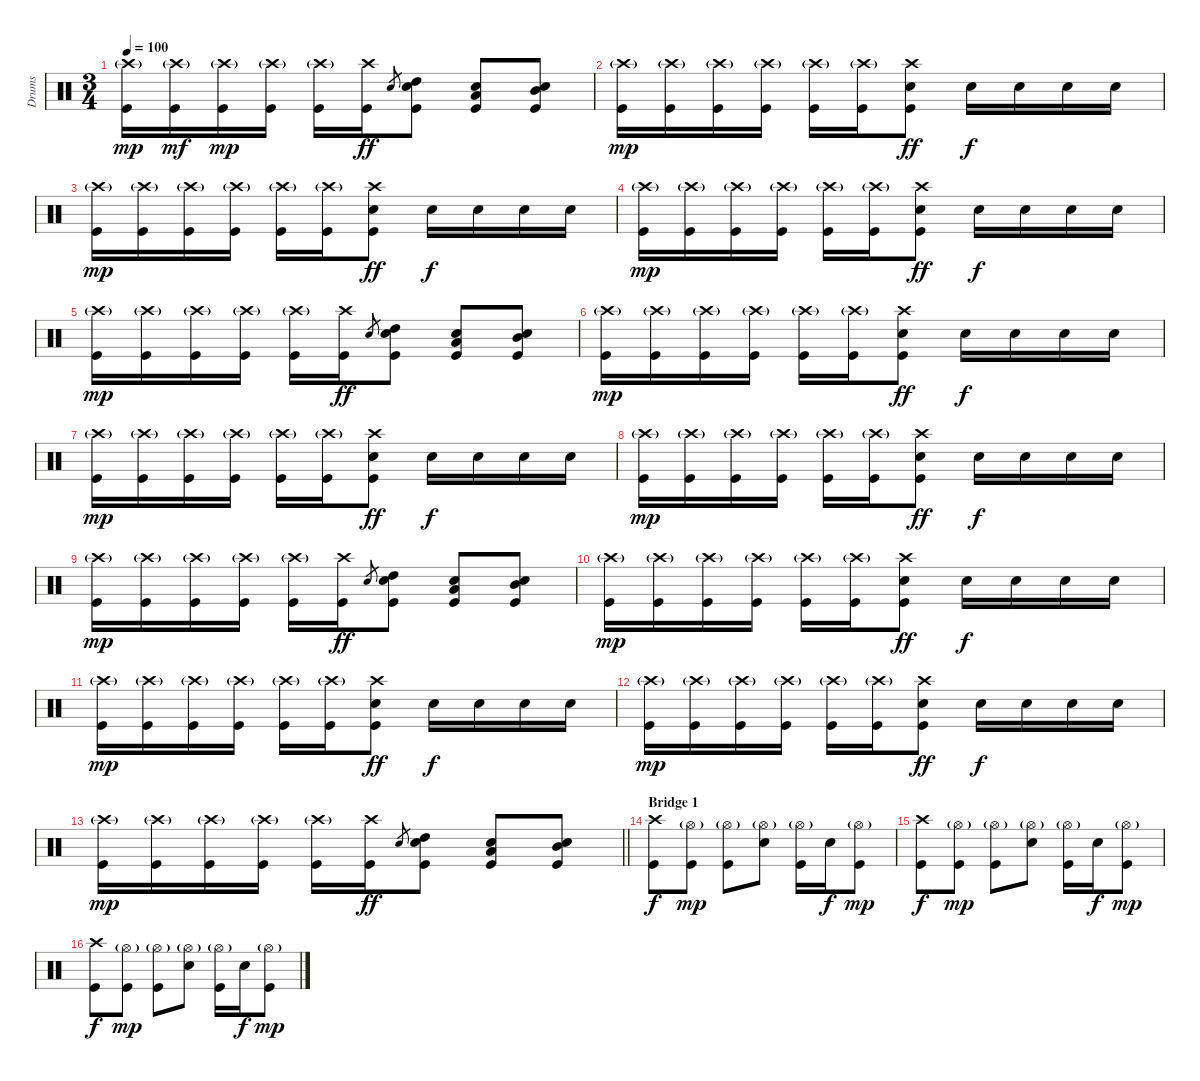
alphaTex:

\track ("Drums" "Drums") {instrument percussion}
\staff {score}
\articulation defaults
\ts (3 4)
\tempo 100
\clef neutral
\ks c
("Crash high (hit)"{g} "Kick (hit)").16{dy mp} ("Crash high (hit)"{g} "Kick (hit)").16{dy mf} ("Crash high (hit)"{g} "Kick (hit)").16{dy mp} ("Crash high (hit)"{g} "Kick (hit)").16 ("Crash high (hit)"{g} "Kick (hit)").16 ("Crash high (hit)" "Kick (hit)").16{dy ff} "Electric Snare (hit)".8{gr} ("Electric Snare (hit)" "High Tom (hit)" "Kick (hit)").8 ("Electric Snare (hit)" "Low Tom (hit)" "Kick (hit)").8 ("Electric Snare (hit)" "Mid Tom (hit)" "Kick (hit)").8 |
("Crash high (hit)"{g} "Kick (hit)").16{dy mp} ("Crash high (hit)"{g} "Kick (hit)").16 ("Crash high (hit)"{g} "Kick (hit)").16 ("Crash high (hit)"{g} "Kick (hit)").16 ("Crash high (hit)"{g} "Kick (hit)").16 ("Crash high (hit)"{g} "Kick (hit)").16 ("Crash high (hit)" "Electric Snare (hit)" "Kick (hit)").8{dy ff} "Electric Snare (hit)".16{dy f} "Electric Snare (hit)".16 "Electric Snare (hit)".16 "Electric Snare (hit)".16 |
("Crash high (hit)"{g} "Kick (hit)").16{dy mp} ("Crash high (hit)"{g} "Kick (hit)").16 ("Crash high (hit)"{g} "Kick (hit)").16 ("Crash high (hit)"{g} "Kick (hit)").16 ("Crash high (hit)"{g} "Kick (hit)").16 ("Crash high (hit)"{g} "Kick (hit)").16 ("Crash high (hit)" "Electric Snare (hit)" "Kick (hit)").8{dy ff} "Electric Snare (hit)".16{dy f} "Electric Snare (hit)".16 "Electric Snare (hit)".16 "Electric Snare (hit)".16 |
("Crash high (hit)"{g} "Kick (hit)").16{dy mp} ("Crash high (hit)"{g} "Kick (hit)").16 ("Crash high (hit)"{g} "Kick (hit)").16 ("Crash high (hit)"{g} "Kick (hit)").16 ("Crash high (hit)"{g} "Kick (hit)").16 ("Crash high (hit)"{g} "Kick (hit)").16 ("Crash high (hit)" "Electric Snare (hit)" "Kick (hit)").8{dy ff} "Electric Snare (hit)".16{dy f} "Electric Snare (hit)".16 "Electric Snare (hit)".16 "Electric Snare (hit)".16 |
("Crash high (hit)"{g} "Kick (hit)").16{dy mp} ("Crash high (hit)"{g} "Kick (hit)").16 ("Crash high (hit)"{g} "Kick (hit)").16 ("Crash high (hit)"{g} "Kick (hit)").16 ("Crash high (hit)"{g} "Kick (hit)").16 ("Crash high (hit)" "Kick (hit)").16{dy ff} "Electric Snare (hit)".8{gr} ("Electric Snare (hit)" "High Tom (hit)" "Kick (hit)").8 ("Electric Snare (hit)" "Low Tom (hit)" "Kick (hit)").8 ("Electric Snare (hit)" "Mid Tom (hit)" "Kick (hit)").8 |
("Crash high (hit)"{g} "Kick (hit)").16{dy mp} ("Crash high (hit)"{g} "Kick (hit)").16 ("Crash high (hit)"{g} "Kick (hit)").16 ("Crash high (hit)"{g} "Kick (hit)").16 ("Crash high (hit)"{g} "Kick (hit)").16 ("Crash high (hit)"{g} "Kick (hit)").16 ("Crash high (hit)" "Electric Snare (hit)" "Kick (hit)").8{dy ff} "Electric Snare (hit)".16{dy f} "Electric Snare (hit)".16 "Electric Snare (hit)".16 "Electric Snare (hit)".16 |
("Crash high (hit)"{g} "Kick (hit)").16{dy mp} ("Crash high (hit)"{g} "Kick (hit)").16 ("Crash high (hit)"{g} "Kick (hit)").16 ("Crash high (hit)"{g} "Kick (hit)").16 ("Crash high (hit)"{g} "Kick (hit)").16 ("Crash high (hit)"{g} "Kick (hit)").16 ("Crash high (hit)" "Electric Snare (hit)" "Kick (hit)").8{dy ff} "Electric Snare (hit)".16{dy f} "Electric Snare (hit)".16 "Electric Snare (hit)".16 "Electric Snare (hit)".16 |
("Crash high (hit)"{g} "Kick (hit)").16{dy mp} ("Crash high (hit)"{g} "Kick (hit)").16 ("Crash high (hit)"{g} "Kick (hit)").16 ("Crash high (hit)"{g} "Kick (hit)").16 ("Crash high (hit)"{g} "Kick (hit)").16 ("Crash high (hit)"{g} "Kick (hit)").16 ("Crash high (hit)" "Electric Snare (hit)" "Kick (hit)").8{dy ff} "Electric Snare (hit)".16{dy f} "Electric Snare (hit)".16 "Electric Snare (hit)".16 "Electric Snare (hit)".16 |
("Crash high (hit)"{g} "Kick (hit)").16{dy mp} ("Crash high (hit)"{g} "Kick (hit)").16 ("Crash high (hit)"{g} "Kick (hit)").16 ("Crash high (hit)"{g} "Kick (hit)").16 ("Crash high (hit)"{g} "Kick (hit)").16 ("Crash high (hit)" "Kick (hit)").16{dy ff} "Electric Snare (hit)".8{gr} ("Electric Snare (hit)" "High Tom (hit)" "Kick (hit)").8 ("Electric Snare (hit)" "Low Tom (hit)" "Kick (hit)").8 ("Electric Snare (hit)" "Mid Tom (hit)" "Kick (hit)").8 |
("Crash high (hit)"{g} "Kick (hit)").16{dy mp} ("Crash high (hit)"{g} "Kick (hit)").16 ("Crash high (hit)"{g} "Kick (hit)").16 ("Crash high (hit)"{g} "Kick (hit)").16 ("Crash high (hit)"{g} "Kick (hit)").16 ("Crash high (hit)"{g} "Kick (hit)").16 ("Crash high (hit)" "Electric Snare (hit)" "Kick (hit)").8{dy ff} "Electric Snare (hit)".16{dy f} "Electric Snare (hit)".16 "Electric Snare (hit)".16 "Electric Snare (hit)".16 |
("Crash high (hit)"{g} "Kick (hit)").16{dy mp} ("Crash high (hit)"{g} "Kick (hit)").16 ("Crash high (hit)"{g} "Kick (hit)").16 ("Crash high (hit)"{g} "Kick (hit)").16 ("Crash high (hit)"{g} "Kick (hit)").16 ("Crash high (hit)"{g} "Kick (hit)").16 ("Crash high (hit)" "Electric Snare (hit)" "Kick (hit)").8{dy ff} "Electric Snare (hit)".16{dy f} "Electric Snare (hit)".16 "Electric Snare (hit)".16 "Electric Snare (hit)".16 |
("Crash high (hit)"{g} "Kick (hit)").16{dy mp} ("Crash high (hit)"{g} "Kick (hit)").16 ("Crash high (hit)"{g} "Kick (hit)").16 ("Crash high (hit)"{g} "Kick (hit)").16 ("Crash high (hit)"{g} "Kick (hit)").16 ("Crash high (hit)"{g} "Kick (hit)").16 ("Crash high (hit)" "Electric Snare (hit)" "Kick (hit)").8{dy ff} "Electric Snare (hit)".16{dy f} "Electric Snare (hit)".16 "Electric Snare (hit)".16 "Electric Snare (hit)".16 |
\barLineRight lightlight
("Crash high (hit)"{g} "Kick (hit)").16{dy mp} ("Crash high (hit)"{g} "Kick (hit)").16 ("Crash high (hit)"{g} "Kick (hit)").16 ("Crash high (hit)"{g} "Kick (hit)").16 ("Crash high (hit)"{g} "Kick (hit)").16 ("Crash high (hit)" "Kick (hit)").16{dy ff} "Electric Snare (hit)".8{gr} ("Electric Snare (hit)" "High Tom (hit)" "Kick (hit)").8 ("Electric Snare (hit)" "Low Tom (hit)" "Kick (hit)").8 ("Electric Snare (hit)" "Mid Tom (hit)" "Kick (hit)").8 |
\section ("" "Bridge 1")
("Crash high (hit)" "Kick (hit)").8{dy f} ("Hi-Hat (open)"{g} "Kick (hit)").8{dy mp} ("Hi-Hat (open)"{g} "Kick (hit)").8 ("Hi-Hat (open)"{g} "Electric Snare (hit)").8 ("Hi-Hat (open)"{g} "Kick (hit)").16 "Electric Snare (hit)".16{dy f} ("Hi-Hat (open)"{g} "Kick (hit)").8{dy mp} |
("Crash high (hit)" "Kick (hit)").8{dy f} ("Hi-Hat (open)"{g} "Kick (hit)").8{dy mp} ("Hi-Hat (open)"{g} "Kick (hit)").8 ("Hi-Hat (open)"{g} "Electric Snare (hit)").8 ("Hi-Hat (open)"{g} "Kick (hit)").16 "Electric Snare (hit)".16{dy f} ("Hi-Hat (open)"{g} "Kick (hit)").8{dy mp} |
("Crash high (hit)" "Kick (hit)").8{dy f} ("Hi-Hat (open)"{g} "Kick (hit)").8{dy mp} ("Hi-Hat (open)"{g} "Kick (hit)").8 ("Hi-Hat (open)"{g} "Electric Snare (hit)").8 ("Hi-Hat (open)"{g} "Kick (hit)").16 "Electric Snare (hit)".16{dy f} ("Hi-Hat (open)"{g} "Kick (hit)").8{dy mp}
